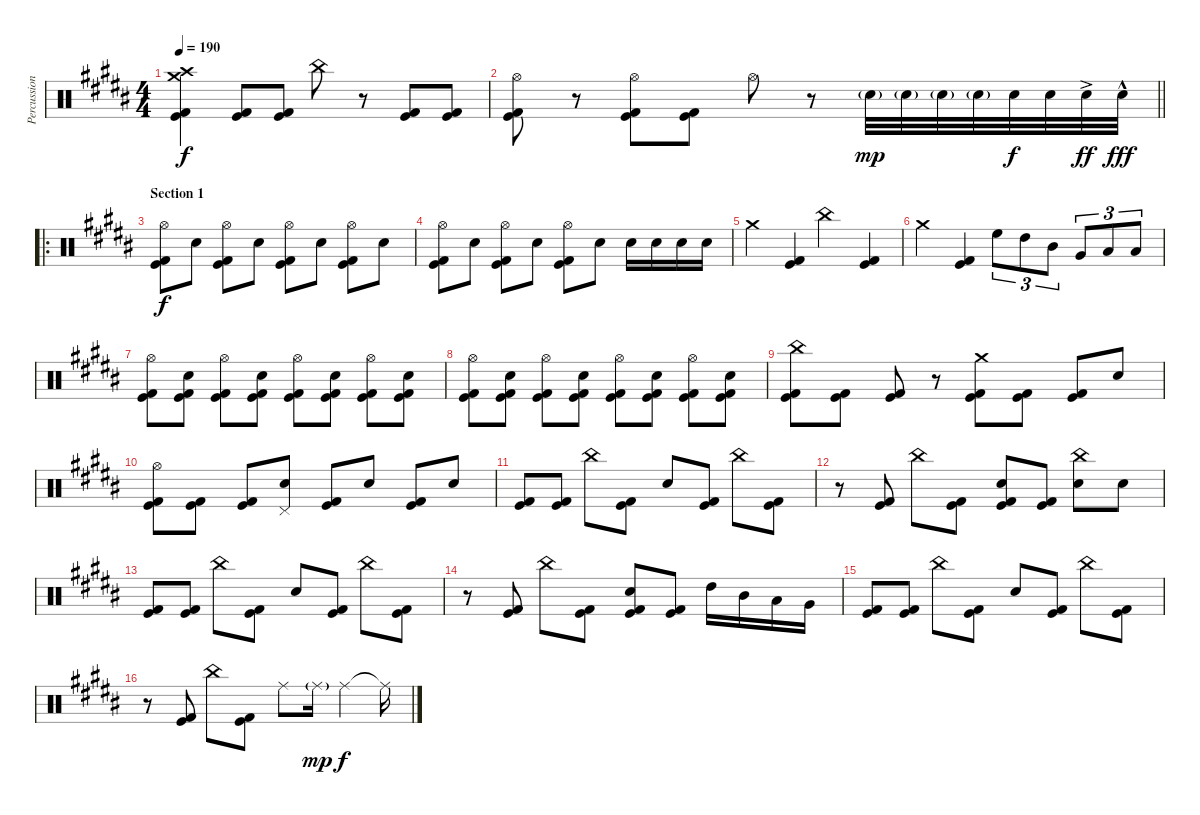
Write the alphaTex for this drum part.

\track ("Percussion" "Percussion") {instrument percussion}
\staff {score}
\articulation defaults
\ts (4 4)
\tempo 190
\clef neutral
\ks g#minor
("Crash medium (hit)" "Crash high (hit)" "Kick (hit)" "Kick (hit) 2").4{dy f} ("Kick (hit)" "Kick (hit) 2").8 ("Kick (hit)" "Kick (hit) 2").8 "China (hit)".8 r.8 ("Kick (hit)" "Kick (hit) 2").8 ("Kick (hit)" "Kick (hit) 2").8 |
\barLineRight lightlight
("Hi-Hat (open)" "Kick (hit)" "Kick (hit) 2").8 r.8 ("Hi-Hat (open)" "Kick (hit)" "Kick (hit) 2").8 ("Kick (hit)" "Kick (hit) 2").8 "Hi-Hat (open)".8 r.8 "Snare (hit) 2"{g}.32{dy mp} "Snare (hit) 2"{g}.32 "Snare (hit) 2"{g}.32 "Snare (hit) 2"{g}.32 "Snare (hit) 2".32{dy f} "Snare (hit) 2".32 "Snare (hit) 2"{ac}.32{dy ff} "Snare (hit) 2"{hac}.32{dy fff} |
\ro
\section ("" "Section 1")
("Hi-Hat (open)" "Kick (hit)" "Kick (hit) 2").8{dy f} "Snare (hit) 2".8 ("Hi-Hat (open)" "Kick (hit)" "Kick (hit) 2").8 "Snare (hit) 2".8 ("Hi-Hat (open)" "Kick (hit)" "Kick (hit) 2").8 "Snare (hit) 2".8 ("Hi-Hat (open)" "Kick (hit)" "Kick (hit) 2").8 "Snare (hit) 2".8 |
("Hi-Hat (open)" "Kick (hit)" "Kick (hit) 2").8 "Snare (hit) 2".8 ("Hi-Hat (open)" "Kick (hit)" "Kick (hit) 2").8 "Snare (hit) 2".8 ("Hi-Hat (open)" "Kick (hit)" "Kick (hit) 2").8 "Snare (hit) 2".8 "Snare (hit) 2".16 "Snare (hit) 2".16 "Snare (hit) 2".16 "Snare (hit) 2".16 |
"Crash medium (hit)".4 ("Kick (hit)" "Kick (hit) 2").4 "China (hit)".4 ("Kick (hit)" "Kick (hit) 2").4 |
"Crash medium (hit)".4 ("Kick (hit)" "Kick (hit) 2").4 "High Floor Tom (hit)".8{tu (3 2)} "High Tom (hit)".8{tu (3 2)} "Mid Tom (hit)".8{tu (3 2)} "Very Low Tom (hit)".8{tu (3 2)} "Low Tom (hit)".8{tu (3 2)} "Low Floor Tom (hit)".8{tu (3 2)} |
("Hi-Hat (open)" "Kick (hit)" "Kick (hit) 2").8 ("Snare (hit) 2" "Kick (hit)" "Kick (hit) 2").8 ("Hi-Hat (open)" "Kick (hit)" "Kick (hit) 2").8 ("Snare (hit) 2" "Kick (hit)" "Kick (hit) 2").8 ("Hi-Hat (open)" "Kick (hit)" "Kick (hit) 2").8 ("Snare (hit) 2" "Kick (hit)" "Kick (hit) 2").8 ("Hi-Hat (open)" "Kick (hit)" "Kick (hit) 2").8 ("Snare (hit) 2" "Kick (hit)" "Kick (hit) 2").8 |
("Hi-Hat (open)" "Kick (hit)" "Kick (hit) 2").8 ("Snare (hit) 2" "Kick (hit)" "Kick (hit) 2").8 ("Hi-Hat (open)" "Kick (hit)" "Kick (hit) 2").8 ("Snare (hit) 2" "Kick (hit)" "Kick (hit) 2").8 ("Hi-Hat (open)" "Kick (hit)" "Kick (hit) 2").8 ("Snare (hit) 2" "Kick (hit)" "Kick (hit) 2").8 ("Hi-Hat (open)" "Kick (hit)" "Kick (hit) 2").8 ("Snare (hit) 2" "Kick (hit)" "Kick (hit) 2").8 |
("China (hit)" "Kick (hit)" "Kick (hit) 2").8 ("Kick (hit)" "Kick (hit) 2").8 ("Kick (hit)" "Kick (hit) 2").8 r.8 ("Crash medium (hit)" "Kick (hit)" "Kick (hit) 2").8 ("Kick (hit)" "Kick (hit) 2").8 ("Kick (hit)" "Kick (hit) 2").8 "Snare (hit) 2".8 |
("Hi-Hat (open)" "Kick (hit)" "Kick (hit) 2").8 ("Kick (hit)" "Kick (hit) 2").8 ("Kick (hit)" "Kick (hit) 2").8 ("Pedal Hi-Hat (hit)" "Snare (hit) 2").8 ("Kick (hit)" "Kick (hit) 2").8 "Snare (hit) 2".8 ("Kick (hit)" "Kick (hit) 2").8 "Snare (hit) 2".8 |
("Kick (hit)" "Kick (hit) 2").8 ("Kick (hit)" "Kick (hit) 2").8 "China (hit)".8 ("Kick (hit)" "Kick (hit) 2").8 "Snare (hit) 2".8 ("Kick (hit)" "Kick (hit) 2").8 "China (hit)".8 ("Kick (hit)" "Kick (hit) 2").8 |
r.8 ("Kick (hit)" "Kick (hit) 2").8 "China (hit)".8 ("Kick (hit)" "Kick (hit) 2").8 ("Snare (hit) 2" "Kick (hit)" "Kick (hit) 2").8 ("Kick (hit)" "Kick (hit) 2").8 ("China (hit)" "Snare (hit) 2").8 "Snare (hit) 2".8 |
("Kick (hit)" "Kick (hit) 2").8 ("Kick (hit)" "Kick (hit) 2").8 "China (hit)".8 ("Kick (hit)" "Kick (hit) 2").8 "Snare (hit) 2".8 ("Kick (hit)" "Kick (hit) 2").8 "China (hit)".8 ("Kick (hit)" "Kick (hit) 2").8 |
r.8 ("Kick (hit)" "Kick (hit) 2").8 "China (hit)".8 ("Kick (hit)" "Kick (hit) 2").8 ("Snare (hit) 2" "Kick (hit)" "Kick (hit) 2").8 ("Kick (hit)" "Kick (hit) 2").8 "High Tom (hit)".16 "Mid Tom (hit)".16 "Low Tom (hit)".16 "Very Low Tom (hit)".16 |
("Kick (hit)" "Kick (hit) 2").8 ("Kick (hit)" "Kick (hit) 2").8 "China (hit)".8 ("Kick (hit)" "Kick (hit) 2").8 "Snare (hit) 2".8 ("Kick (hit)" "Kick (hit) 2").8 "China (hit)".8 ("Kick (hit)" "Kick (hit) 2").8 |
r.8 ("Kick (hit)" "Kick (hit) 2").8 "China (hit)".8 ("Kick (hit)" "Kick (hit) 2").8 "Ride (middle)".8 "Ride (middle)"{g}.16{dy mp} "Ride (middle)".4{dy f} "Ride (middle)"{t}.16
